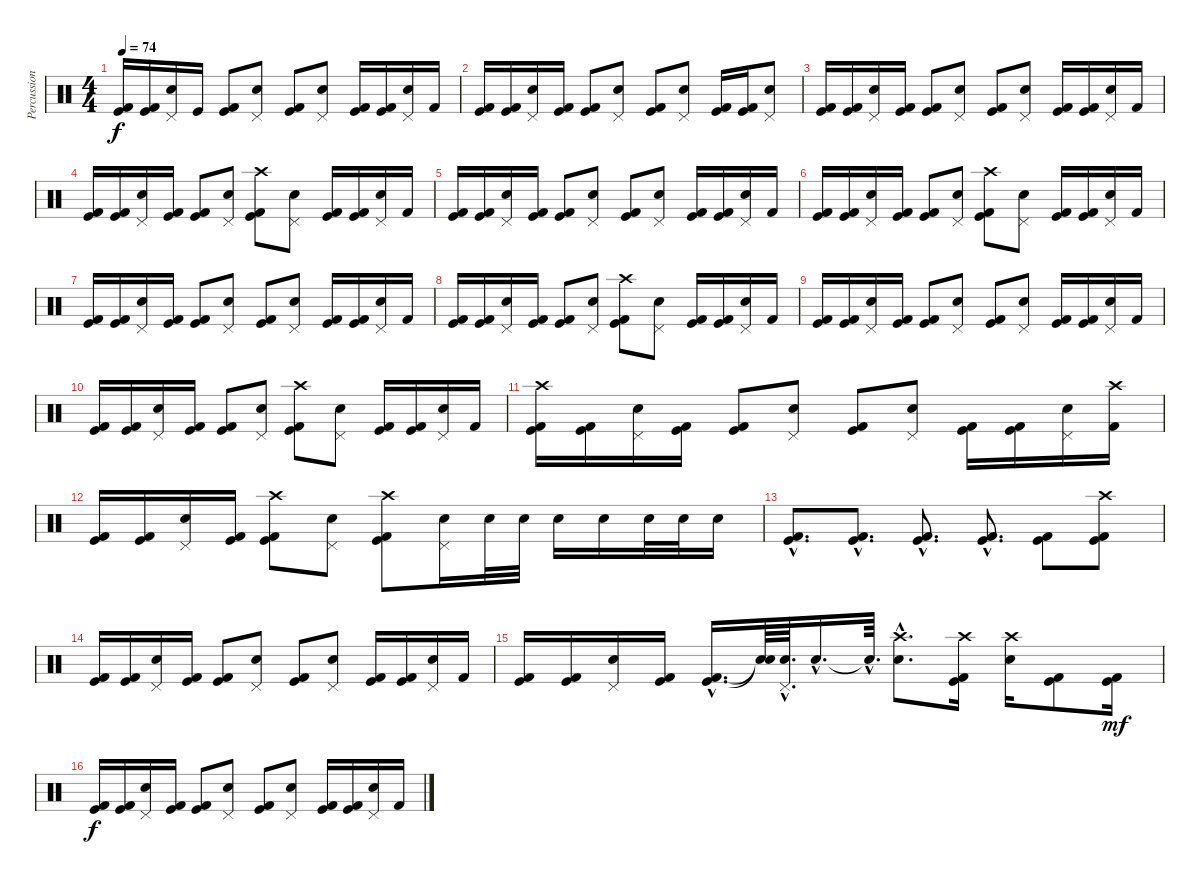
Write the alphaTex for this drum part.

\track ("Percussion" "Percussion") {instrument percussion}
\staff {score}
\articulation defaults
\ts (4 4)
\tempo 74
\clef neutral
\ks c
("Kick (hit) 2" "Kick (hit)").16{dy f} ("Kick (hit) 2" "Kick (hit)").16 ("Electric Snare (hit)" "Pedal Hi-Hat (hit)").16 "Kick (hit)".16 ("Kick (hit) 2" "Kick (hit)").8 ("Electric Snare (hit)" "Pedal Hi-Hat (hit)").8 ("Kick (hit) 2" "Kick (hit)").8 ("Electric Snare (hit)" "Pedal Hi-Hat (hit)").8 ("Kick (hit) 2" "Kick (hit)").16 ("Kick (hit) 2" "Kick (hit)").16 ("Electric Snare (hit)" "Pedal Hi-Hat (hit)").16 "Kick (hit) 2".16 |
("Kick (hit) 2" "Kick (hit)").16 ("Kick (hit) 2" "Kick (hit)").16 ("Electric Snare (hit)" "Pedal Hi-Hat (hit)").16 ("Kick (hit) 2" "Kick (hit)").16 ("Kick (hit) 2" "Kick (hit)").8 ("Electric Snare (hit)" "Pedal Hi-Hat (hit)").8 ("Kick (hit) 2" "Kick (hit)").8 ("Electric Snare (hit)" "Pedal Hi-Hat (hit)").8 ("Kick (hit) 2" "Kick (hit)").16 ("Kick (hit) 2" "Kick (hit)").16 ("Electric Snare (hit)" "Pedal Hi-Hat (hit)").8 |
("Kick (hit) 2" "Kick (hit)").16 ("Kick (hit) 2" "Kick (hit)").16 ("Electric Snare (hit)" "Pedal Hi-Hat (hit)").16 ("Kick (hit) 2" "Kick (hit)").16 ("Kick (hit) 2" "Kick (hit)").8 ("Electric Snare (hit)" "Pedal Hi-Hat (hit)").8 ("Kick (hit) 2" "Kick (hit)").8 ("Electric Snare (hit)" "Pedal Hi-Hat (hit)").8 ("Kick (hit) 2" "Kick (hit)").16 ("Kick (hit) 2" "Kick (hit)").16 ("Electric Snare (hit)" "Pedal Hi-Hat (hit)").16 "Kick (hit) 2".16 |
("Kick (hit) 2" "Kick (hit)").16 ("Kick (hit) 2" "Kick (hit)").16 ("Electric Snare (hit)" "Pedal Hi-Hat (hit)").16 ("Kick (hit) 2" "Kick (hit)").16 ("Kick (hit) 2" "Kick (hit)").8 ("Electric Snare (hit)" "Pedal Hi-Hat (hit)").8 ("Kick (hit) 2" "Kick (hit)" "Crash high (hit)").8 ("Electric Snare (hit)" "Pedal Hi-Hat (hit)").8 ("Kick (hit) 2" "Kick (hit)").16 ("Kick (hit) 2" "Kick (hit)").16 ("Electric Snare (hit)" "Pedal Hi-Hat (hit)").16 "Kick (hit) 2".16 |
("Kick (hit) 2" "Kick (hit)").16 ("Kick (hit) 2" "Kick (hit)").16 ("Electric Snare (hit)" "Pedal Hi-Hat (hit)").16 ("Kick (hit) 2" "Kick (hit)").16 ("Kick (hit) 2" "Kick (hit)").8 ("Electric Snare (hit)" "Pedal Hi-Hat (hit)").8 ("Kick (hit) 2" "Kick (hit)").8 ("Electric Snare (hit)" "Pedal Hi-Hat (hit)").8 ("Kick (hit) 2" "Kick (hit)").16 ("Kick (hit) 2" "Kick (hit)").16 ("Electric Snare (hit)" "Pedal Hi-Hat (hit)").16 "Kick (hit) 2".16 |
("Kick (hit) 2" "Kick (hit)").16 ("Kick (hit) 2" "Kick (hit)").16 ("Electric Snare (hit)" "Pedal Hi-Hat (hit)").16 ("Kick (hit) 2" "Kick (hit)").16 ("Kick (hit) 2" "Kick (hit)").8 ("Electric Snare (hit)" "Pedal Hi-Hat (hit)").8 ("Kick (hit) 2" "Kick (hit)" "Crash high (hit)").8 ("Electric Snare (hit)" "Pedal Hi-Hat (hit)").8 ("Kick (hit) 2" "Kick (hit)").16 ("Kick (hit) 2" "Kick (hit)").16 ("Electric Snare (hit)" "Pedal Hi-Hat (hit)").16 "Kick (hit) 2".16 |
("Kick (hit) 2" "Kick (hit)").16 ("Kick (hit) 2" "Kick (hit)").16 ("Electric Snare (hit)" "Pedal Hi-Hat (hit)").16 ("Kick (hit) 2" "Kick (hit)").16 ("Kick (hit) 2" "Kick (hit)").8 ("Electric Snare (hit)" "Pedal Hi-Hat (hit)").8 ("Kick (hit) 2" "Kick (hit)").8 ("Electric Snare (hit)" "Pedal Hi-Hat (hit)").8 ("Kick (hit) 2" "Kick (hit)").16 ("Kick (hit) 2" "Kick (hit)").16 ("Electric Snare (hit)" "Pedal Hi-Hat (hit)").16 "Kick (hit) 2".16 |
("Kick (hit) 2" "Kick (hit)").16 ("Kick (hit) 2" "Kick (hit)").16 ("Electric Snare (hit)" "Pedal Hi-Hat (hit)").16 ("Kick (hit) 2" "Kick (hit)").16 ("Kick (hit) 2" "Kick (hit)").8 ("Electric Snare (hit)" "Pedal Hi-Hat (hit)").8 ("Kick (hit) 2" "Kick (hit)" "Crash high (hit)").8 ("Electric Snare (hit)" "Pedal Hi-Hat (hit)").8 ("Kick (hit) 2" "Kick (hit)").16 ("Kick (hit) 2" "Kick (hit)").16 ("Electric Snare (hit)" "Pedal Hi-Hat (hit)").16 "Kick (hit) 2".16 |
("Kick (hit) 2" "Kick (hit)").16 ("Kick (hit) 2" "Kick (hit)").16 ("Electric Snare (hit)" "Pedal Hi-Hat (hit)").16 ("Kick (hit) 2" "Kick (hit)").16 ("Kick (hit) 2" "Kick (hit)").8 ("Electric Snare (hit)" "Pedal Hi-Hat (hit)").8 ("Kick (hit) 2" "Kick (hit)").8 ("Electric Snare (hit)" "Pedal Hi-Hat (hit)").8 ("Kick (hit) 2" "Kick (hit)").16 ("Kick (hit) 2" "Kick (hit)").16 ("Electric Snare (hit)" "Pedal Hi-Hat (hit)").16 "Kick (hit) 2".16 |
("Kick (hit) 2" "Kick (hit)").16 ("Kick (hit) 2" "Kick (hit)").16 ("Electric Snare (hit)" "Pedal Hi-Hat (hit)").16 ("Kick (hit) 2" "Kick (hit)").16 ("Kick (hit) 2" "Kick (hit)").8 ("Electric Snare (hit)" "Pedal Hi-Hat (hit)").8 ("Kick (hit) 2" "Kick (hit)" "Crash high (hit)").8 ("Electric Snare (hit)" "Pedal Hi-Hat (hit)").8 ("Kick (hit) 2" "Kick (hit)").16 ("Kick (hit) 2" "Kick (hit)").16 ("Electric Snare (hit)" "Pedal Hi-Hat (hit)").16 "Kick (hit) 2".16 |
("Kick (hit) 2" "Kick (hit)" "Crash high (hit)").16 ("Kick (hit) 2" "Kick (hit)").16 ("Electric Snare (hit)" "Pedal Hi-Hat (hit)").16 ("Kick (hit) 2" "Kick (hit)").16 ("Kick (hit) 2" "Kick (hit)").8 ("Electric Snare (hit)" "Pedal Hi-Hat (hit)").8 ("Kick (hit) 2" "Kick (hit)").8 ("Electric Snare (hit)" "Pedal Hi-Hat (hit)").8 ("Kick (hit) 2" "Kick (hit)").16 ("Kick (hit) 2" "Kick (hit)").16 ("Electric Snare (hit)" "Pedal Hi-Hat (hit)").16 ("Kick (hit) 2" "Crash high (hit)").16 |
("Kick (hit) 2" "Kick (hit)").16 ("Kick (hit) 2" "Kick (hit)").16 ("Electric Snare (hit)" "Pedal Hi-Hat (hit)").16 ("Kick (hit) 2" "Kick (hit)").16 ("Kick (hit) 2" "Kick (hit)" "Crash high (hit)").8 ("Electric Snare (hit)" "Pedal Hi-Hat (hit)").8 ("Kick (hit) 2" "Kick (hit)" "Crash high (hit)").8 ("Electric Snare (hit)" "Pedal Hi-Hat (hit)").16 "Electric Snare (hit)".32 "Electric Snare (hit)".32 "Electric Snare (hit)".16 "Electric Snare (hit)".16 "Electric Snare (hit)".32 "Electric Snare (hit)".32 "Electric Snare (hit)".16 |
("Kick (hit) 2"{hac} "Kick (hit)"{hac}).8{d} ("Kick (hit) 2"{hac} "Kick (hit)"{hac}).8{d} ("Kick (hit) 2"{hac} "Kick (hit)"{hac}).8{d} ("Kick (hit) 2"{hac} "Kick (hit)"{hac}).8{d} ("Kick (hit) 2" "Kick (hit)").8 ("Kick (hit) 2" "Kick (hit)" "Crash high (hit)").8 |
("Kick (hit) 2" "Kick (hit)").16 ("Kick (hit) 2" "Kick (hit)").16 ("Electric Snare (hit)" "Pedal Hi-Hat (hit)").16 ("Kick (hit) 2" "Kick (hit)").16 ("Kick (hit) 2" "Kick (hit)").8 ("Electric Snare (hit)" "Pedal Hi-Hat (hit)").8 ("Kick (hit) 2" "Kick (hit)").8 ("Electric Snare (hit)" "Pedal Hi-Hat (hit)").8 ("Kick (hit) 2" "Kick (hit)").16 ("Kick (hit) 2" "Kick (hit)").16 ("Electric Snare (hit)" "Pedal Hi-Hat (hit)").16 "Kick (hit) 2".16 |
("Kick (hit) 2" "Kick (hit)").16 ("Kick (hit) 2" "Kick (hit)").16 ("Electric Snare (hit)" "Pedal Hi-Hat (hit)").16 ("Kick (hit) 2" "Kick (hit)").16 ("Kick (hit) 2"{hac} "Kick (hit)"{hac}).16{d} ("Snare (hit)"{t} "Snare (hit)"{t}).64 ("Electric Snare (hit)"{hac} "Pedal Hi-Hat (hit)"{hac}).64{d} "Electric Snare (hit)"{hac}.16{d} "Snare (hit)"{hac t}.64{d} ("Electric Snare (hit)"{hac} "Crash high (hit)"{hac}).8{d} ("Kick (hit) 2" "Kick (hit)" "Crash high (hit)").16 ("Electric Snare (hit)" "Crash high (hit)").16 ("Kick (hit) 2" "Kick (hit)").8 ("Kick (hit) 2" "Kick (hit)").16{dy mf} |
("Kick (hit) 2" "Kick (hit)").16{dy f} ("Kick (hit) 2" "Kick (hit)").16 ("Electric Snare (hit)" "Pedal Hi-Hat (hit)").16 ("Kick (hit) 2" "Kick (hit)").16 ("Kick (hit) 2" "Kick (hit)").8 ("Electric Snare (hit)" "Pedal Hi-Hat (hit)").8 ("Kick (hit) 2" "Kick (hit)").8 ("Electric Snare (hit)" "Pedal Hi-Hat (hit)").8 ("Kick (hit) 2" "Kick (hit)").16 ("Kick (hit) 2" "Kick (hit)").16 ("Electric Snare (hit)" "Pedal Hi-Hat (hit)").16 "Kick (hit) 2".16
